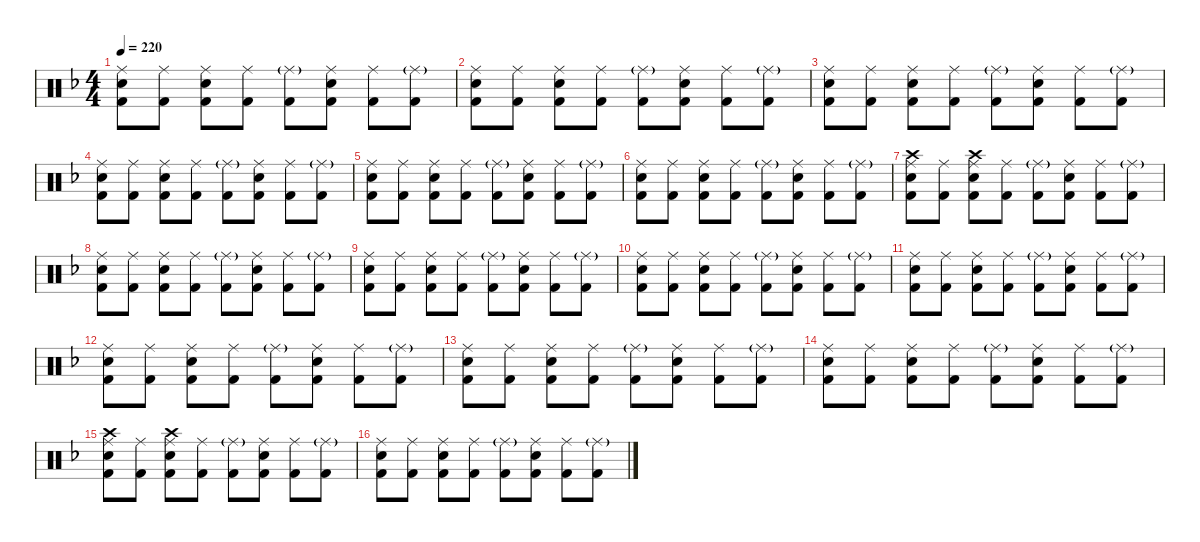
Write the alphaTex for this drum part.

\hideDynamics
\bracketExtendMode nobrackets
\singleTrackTrackNamePolicy hidden
\multiTrackTrackNamePolicy hidden
\firstSystemTrackNameMode fullname
\firstSystemTrackNameOrientation horizontal
\otherSystemsTrackNameOrientation horizontal
\track ("Drumkit" "Drums") {instrument percussion}
\staff {score}
\articulation defaults
\ts (4 4)
\tempo 220
\clef neutral
\ks dminor
("Ride (middle)"{acc forcenatural} "Snare (hit) 2"{acc forcenatural} "Kick (hit) 2"{acc forcenatural}).8{dy mf beam Down} ("Ride (middle)"{acc forcenatural} "Kick (hit) 2"{acc forcenatural}).8{beam Down} ("Ride (middle)"{acc forcenatural} "Snare (hit) 2"{acc forcenatural} "Kick (hit) 2"{acc forcenatural}).8{beam Down} ("Ride (middle)"{acc forcenatural} "Kick (hit) 2"{acc forcenatural}).8{beam Down} ("Ride (middle)"{g acc forcenatural} "Kick (hit) 2"{acc forcenatural}).8{dy f beam Down} ("Ride (middle)"{acc forcenatural} "Snare (hit) 2"{acc forcenatural} "Kick (hit) 2"{acc forcenatural}).8{dy mf beam Down} ("Ride (middle)"{acc forcenatural} "Kick (hit) 2"{acc forcenatural}).8{beam Down} ("Ride (middle)"{g acc forcenatural} "Kick (hit) 2"{acc forcenatural}).8{dy f beam Down} |
("Ride (middle)"{acc forcenatural} "Snare (hit) 2"{acc forcenatural} "Kick (hit) 2"{acc forcenatural}).8{dy mf beam Down} ("Ride (middle)"{acc forcenatural} "Kick (hit) 2"{acc forcenatural}).8{beam Down} ("Ride (middle)"{acc forcenatural} "Snare (hit) 2"{acc forcenatural} "Kick (hit) 2"{acc forcenatural}).8{beam Down} ("Ride (middle)"{acc forcenatural} "Kick (hit) 2"{acc forcenatural}).8{beam Down} ("Ride (middle)"{g acc forcenatural} "Kick (hit) 2"{acc forcenatural}).8{dy f beam Down} ("Ride (middle)"{acc forcenatural} "Snare (hit) 2"{acc forcenatural} "Kick (hit) 2"{acc forcenatural}).8{dy mf beam Down} ("Ride (middle)"{acc forcenatural} "Kick (hit) 2"{acc forcenatural}).8{beam Down} ("Ride (middle)"{g acc forcenatural} "Kick (hit) 2"{acc forcenatural}).8{dy f beam Down} |
("Ride (middle)"{acc forcenatural} "Snare (hit) 2"{acc forcenatural} "Kick (hit) 2"{acc forcenatural}).8{dy mf beam Down} ("Ride (middle)"{acc forcenatural} "Kick (hit) 2"{acc forcenatural}).8{beam Down} ("Ride (middle)"{acc forcenatural} "Snare (hit) 2"{acc forcenatural} "Kick (hit) 2"{acc forcenatural}).8{beam Down} ("Ride (middle)"{acc forcenatural} "Kick (hit) 2"{acc forcenatural}).8{beam Down} ("Ride (middle)"{g acc forcenatural} "Kick (hit) 2"{acc forcenatural}).8{dy f beam Down} ("Ride (middle)"{acc forcenatural} "Snare (hit) 2"{acc forcenatural} "Kick (hit) 2"{acc forcenatural}).8{dy mf beam Down} ("Ride (middle)"{acc forcenatural} "Kick (hit) 2"{acc forcenatural}).8{beam Down} ("Ride (middle)"{g acc forcenatural} "Kick (hit) 2"{acc forcenatural}).8{dy f beam Down} |
("Ride (middle)"{acc forcenatural} "Snare (hit) 2"{acc forcenatural} "Kick (hit) 2"{acc forcenatural}).8{dy mf beam Down} ("Ride (middle)"{acc forcenatural} "Kick (hit) 2"{acc forcenatural}).8{beam Down} ("Ride (middle)"{acc forcenatural} "Snare (hit) 2"{acc forcenatural} "Kick (hit) 2"{acc forcenatural}).8{beam Down} ("Ride (middle)"{acc forcenatural} "Kick (hit) 2"{acc forcenatural}).8{beam Down} ("Ride (middle)"{g acc forcenatural} "Kick (hit) 2"{acc forcenatural}).8{dy f beam Down} ("Ride (middle)"{acc forcenatural} "Snare (hit) 2"{acc forcenatural} "Kick (hit) 2"{acc forcenatural}).8{dy mf beam Down} ("Ride (middle)"{acc forcenatural} "Kick (hit) 2"{acc forcenatural}).8{beam Down} ("Ride (middle)"{g acc forcenatural} "Kick (hit) 2"{acc forcenatural}).8{dy f beam Down} |
("Ride (middle)"{acc forcenatural} "Snare (hit) 2"{acc forcenatural} "Kick (hit) 2"{acc forcenatural}).8{dy mf beam Down} ("Ride (middle)"{acc forcenatural} "Kick (hit) 2"{acc forcenatural}).8{beam Down} ("Ride (middle)"{acc forcenatural} "Snare (hit) 2"{acc forcenatural} "Kick (hit) 2"{acc forcenatural}).8{beam Down} ("Ride (middle)"{acc forcenatural} "Kick (hit) 2"{acc forcenatural}).8{beam Down} ("Ride (middle)"{g acc forcenatural} "Kick (hit) 2"{acc forcenatural}).8{dy f beam Down} ("Ride (middle)"{acc forcenatural} "Snare (hit) 2"{acc forcenatural} "Kick (hit) 2"{acc forcenatural}).8{dy mf beam Down} ("Ride (middle)"{acc forcenatural} "Kick (hit) 2"{acc forcenatural}).8{beam Down} ("Ride (middle)"{g acc forcenatural} "Kick (hit) 2"{acc forcenatural}).8{dy f beam Down} |
("Ride (middle)"{acc forcenatural} "Snare (hit) 2"{acc forcenatural} "Kick (hit) 2"{acc forcenatural}).8{dy mf beam Down} ("Ride (middle)"{acc forcenatural} "Kick (hit) 2"{acc forcenatural}).8{beam Down} ("Ride (middle)"{acc forcenatural} "Snare (hit) 2"{acc forcenatural} "Kick (hit) 2"{acc forcenatural}).8{beam Down} ("Ride (middle)"{acc forcenatural} "Kick (hit) 2"{acc forcenatural}).8{beam Down} ("Ride (middle)"{g acc forcenatural} "Kick (hit) 2"{acc forcenatural}).8{dy f beam Down} ("Ride (middle)"{acc forcenatural} "Snare (hit) 2"{acc forcenatural} "Kick (hit) 2"{acc forcenatural}).8{dy mf beam Down} ("Ride (middle)"{acc forcenatural} "Kick (hit) 2"{acc forcenatural}).8{beam Down} ("Ride (middle)"{g acc forcenatural} "Kick (hit) 2"{acc forcenatural}).8{dy f beam Down} |
("Crash high (hit)"{acc forcenatural} "Ride (middle)"{acc forcenatural} "Snare (hit) 2"{acc forcenatural} "Kick (hit) 2"{acc forcenatural}).8{beam Down} ("Ride (middle)"{acc forcenatural} "Kick (hit) 2"{acc forcenatural}).8{dy mf beam Down} ("Crash high (hit)"{acc forcenatural} "Ride (middle)"{acc forcenatural} "Snare (hit) 2"{acc forcenatural} "Kick (hit) 2"{acc forcenatural}).8{dy f beam Down} ("Ride (middle)"{acc forcenatural} "Kick (hit) 2"{acc forcenatural}).8{dy mf beam Down} ("Ride (middle)"{g acc forcenatural} "Kick (hit) 2"{acc forcenatural}).8{dy f beam Down} ("Ride (middle)"{acc forcenatural} "Snare (hit) 2"{acc forcenatural} "Kick (hit) 2"{acc forcenatural}).8{dy mf beam Down} ("Ride (middle)"{acc forcenatural} "Kick (hit) 2"{acc forcenatural}).8{beam Down} ("Ride (middle)"{g acc forcenatural} "Kick (hit) 2"{acc forcenatural}).8{dy f beam Down} |
("Ride (middle)"{acc forcenatural} "Snare (hit) 2"{acc forcenatural} "Kick (hit) 2"{acc forcenatural}).8{dy mf beam Down} ("Ride (middle)"{acc forcenatural} "Kick (hit) 2"{acc forcenatural}).8{beam Down} ("Ride (middle)"{acc forcenatural} "Snare (hit) 2"{acc forcenatural} "Kick (hit) 2"{acc forcenatural}).8{beam Down} ("Ride (middle)"{acc forcenatural} "Kick (hit) 2"{acc forcenatural}).8{beam Down} ("Ride (middle)"{g acc forcenatural} "Kick (hit) 2"{acc forcenatural}).8{dy f beam Down} ("Ride (middle)"{acc forcenatural} "Snare (hit) 2"{acc forcenatural} "Kick (hit) 2"{acc forcenatural}).8{dy mf beam Down} ("Ride (middle)"{acc forcenatural} "Kick (hit) 2"{acc forcenatural}).8{beam Down} ("Ride (middle)"{g acc forcenatural} "Kick (hit) 2"{acc forcenatural}).8{dy f beam Down} |
("Ride (middle)"{acc forcenatural} "Snare (hit) 2"{acc forcenatural} "Kick (hit) 2"{acc forcenatural}).8{dy mf beam Down} ("Ride (middle)"{acc forcenatural} "Kick (hit) 2"{acc forcenatural}).8{beam Down} ("Ride (middle)"{acc forcenatural} "Snare (hit) 2"{acc forcenatural} "Kick (hit) 2"{acc forcenatural}).8{beam Down} ("Ride (middle)"{acc forcenatural} "Kick (hit) 2"{acc forcenatural}).8{beam Down} ("Ride (middle)"{g acc forcenatural} "Kick (hit) 2"{acc forcenatural}).8{dy f beam Down} ("Ride (middle)"{acc forcenatural} "Snare (hit) 2"{acc forcenatural} "Kick (hit) 2"{acc forcenatural}).8{dy mf beam Down} ("Ride (middle)"{acc forcenatural} "Kick (hit) 2"{acc forcenatural}).8{beam Down} ("Ride (middle)"{g acc forcenatural} "Kick (hit) 2"{acc forcenatural}).8{dy f beam Down} |
("Ride (middle)"{acc forcenatural} "Snare (hit) 2"{acc forcenatural} "Kick (hit) 2"{acc forcenatural}).8{dy mf beam Down} ("Ride (middle)"{acc forcenatural} "Kick (hit) 2"{acc forcenatural}).8{beam Down} ("Ride (middle)"{acc forcenatural} "Snare (hit) 2"{acc forcenatural} "Kick (hit) 2"{acc forcenatural}).8{beam Down} ("Ride (middle)"{acc forcenatural} "Kick (hit) 2"{acc forcenatural}).8{beam Down} ("Ride (middle)"{g acc forcenatural} "Kick (hit) 2"{acc forcenatural}).8{dy f beam Down} ("Ride (middle)"{acc forcenatural} "Snare (hit) 2"{acc forcenatural} "Kick (hit) 2"{acc forcenatural}).8{dy mf beam Down} ("Ride (middle)"{acc forcenatural} "Kick (hit) 2"{acc forcenatural}).8{beam Down} ("Ride (middle)"{g acc forcenatural} "Kick (hit) 2"{acc forcenatural}).8{dy f beam Down} |
("Ride (middle)"{acc forcenatural} "Snare (hit) 2"{acc forcenatural} "Kick (hit) 2"{acc forcenatural}).8{dy mf beam Down} ("Ride (middle)"{acc forcenatural} "Kick (hit) 2"{acc forcenatural}).8{beam Down} ("Ride (middle)"{acc forcenatural} "Snare (hit) 2"{acc forcenatural} "Kick (hit) 2"{acc forcenatural}).8{beam Down} ("Ride (middle)"{acc forcenatural} "Kick (hit) 2"{acc forcenatural}).8{beam Down} ("Ride (middle)"{g acc forcenatural} "Kick (hit) 2"{acc forcenatural}).8{dy f beam Down} ("Ride (middle)"{acc forcenatural} "Snare (hit) 2"{acc forcenatural} "Kick (hit) 2"{acc forcenatural}).8{dy mf beam Down} ("Ride (middle)"{acc forcenatural} "Kick (hit) 2"{acc forcenatural}).8{beam Down} ("Ride (middle)"{g acc forcenatural} "Kick (hit) 2"{acc forcenatural}).8{dy f beam Down} |
("Ride (middle)"{acc forcenatural} "Snare (hit) 2"{acc forcenatural} "Kick (hit) 2"{acc forcenatural}).8{dy mf beam Down} ("Ride (middle)"{acc forcenatural} "Kick (hit) 2"{acc forcenatural}).8{beam Down} ("Ride (middle)"{acc forcenatural} "Snare (hit) 2"{acc forcenatural} "Kick (hit) 2"{acc forcenatural}).8{beam Down} ("Ride (middle)"{acc forcenatural} "Kick (hit) 2"{acc forcenatural}).8{beam Down} ("Ride (middle)"{g acc forcenatural} "Kick (hit) 2"{acc forcenatural}).8{dy f beam Down} ("Ride (middle)"{acc forcenatural} "Snare (hit) 2"{acc forcenatural} "Kick (hit) 2"{acc forcenatural}).8{dy mf beam Down} ("Ride (middle)"{acc forcenatural} "Kick (hit) 2"{acc forcenatural}).8{beam Down} ("Ride (middle)"{g acc forcenatural} "Kick (hit) 2"{acc forcenatural}).8{dy f beam Down} |
("Ride (middle)"{acc forcenatural} "Snare (hit) 2"{acc forcenatural} "Kick (hit) 2"{acc forcenatural}).8{dy mf beam Down} ("Ride (middle)"{acc forcenatural} "Kick (hit) 2"{acc forcenatural}).8{beam Down} ("Ride (middle)"{acc forcenatural} "Snare (hit) 2"{acc forcenatural} "Kick (hit) 2"{acc forcenatural}).8{beam Down} ("Ride (middle)"{acc forcenatural} "Kick (hit) 2"{acc forcenatural}).8{beam Down} ("Ride (middle)"{g acc forcenatural} "Kick (hit) 2"{acc forcenatural}).8{dy f beam Down} ("Ride (middle)"{acc forcenatural} "Snare (hit) 2"{acc forcenatural} "Kick (hit) 2"{acc forcenatural}).8{dy mf beam Down} ("Ride (middle)"{acc forcenatural} "Kick (hit) 2"{acc forcenatural}).8{beam Down} ("Ride (middle)"{g acc forcenatural} "Kick (hit) 2"{acc forcenatural}).8{dy f beam Down} |
("Ride (middle)"{acc forcenatural} "Snare (hit) 2"{acc forcenatural} "Kick (hit) 2"{acc forcenatural}).8{dy mf beam Down} ("Ride (middle)"{acc forcenatural} "Kick (hit) 2"{acc forcenatural}).8{beam Down} ("Ride (middle)"{acc forcenatural} "Snare (hit) 2"{acc forcenatural} "Kick (hit) 2"{acc forcenatural}).8{beam Down} ("Ride (middle)"{acc forcenatural} "Kick (hit) 2"{acc forcenatural}).8{beam Down} ("Ride (middle)"{g acc forcenatural} "Kick (hit) 2"{acc forcenatural}).8{dy f beam Down} ("Ride (middle)"{acc forcenatural} "Snare (hit) 2"{acc forcenatural} "Kick (hit) 2"{acc forcenatural}).8{dy mf beam Down} ("Ride (middle)"{acc forcenatural} "Kick (hit) 2"{acc forcenatural}).8{beam Down} ("Ride (middle)"{g acc forcenatural} "Kick (hit) 2"{acc forcenatural}).8{dy f beam Down} |
("Crash high (hit)"{acc forcenatural} "Ride (middle)"{acc forcenatural} "Snare (hit) 2"{acc forcenatural} "Kick (hit) 2"{acc forcenatural}).8{beam Down} ("Ride (middle)"{acc forcenatural} "Kick (hit) 2"{acc forcenatural}).8{dy mf beam Down} ("Crash high (hit)"{acc forcenatural} "Ride (middle)"{acc forcenatural} "Snare (hit) 2"{acc forcenatural} "Kick (hit) 2"{acc forcenatural}).8{dy f beam Down} ("Ride (middle)"{acc forcenatural} "Kick (hit) 2"{acc forcenatural}).8{dy mf beam Down} ("Ride (middle)"{g acc forcenatural} "Kick (hit) 2"{acc forcenatural}).8{dy f beam Down} ("Ride (middle)"{acc forcenatural} "Snare (hit) 2"{acc forcenatural} "Kick (hit) 2"{acc forcenatural}).8{dy mf beam Down} ("Ride (middle)"{acc forcenatural} "Kick (hit) 2"{acc forcenatural}).8{beam Down} ("Ride (middle)"{g acc forcenatural} "Kick (hit) 2"{acc forcenatural}).8{dy f beam Down} |
("Ride (middle)"{acc forcenatural} "Snare (hit) 2"{acc forcenatural} "Kick (hit) 2"{acc forcenatural}).8{dy mf beam Down} ("Ride (middle)"{acc forcenatural} "Kick (hit) 2"{acc forcenatural}).8{beam Down} ("Ride (middle)"{acc forcenatural} "Snare (hit) 2"{acc forcenatural} "Kick (hit) 2"{acc forcenatural}).8{beam Down} ("Ride (middle)"{acc forcenatural} "Kick (hit) 2"{acc forcenatural}).8{beam Down} ("Ride (middle)"{g acc forcenatural} "Kick (hit) 2"{acc forcenatural}).8{dy f beam Down} ("Ride (middle)"{acc forcenatural} "Snare (hit) 2"{acc forcenatural} "Kick (hit) 2"{acc forcenatural}).8{dy mf beam Down} ("Ride (middle)"{acc forcenatural} "Kick (hit) 2"{acc forcenatural}).8{beam Down} ("Ride (middle)"{g acc forcenatural} "Kick (hit) 2"{acc forcenatural}).8{dy f beam Down}
